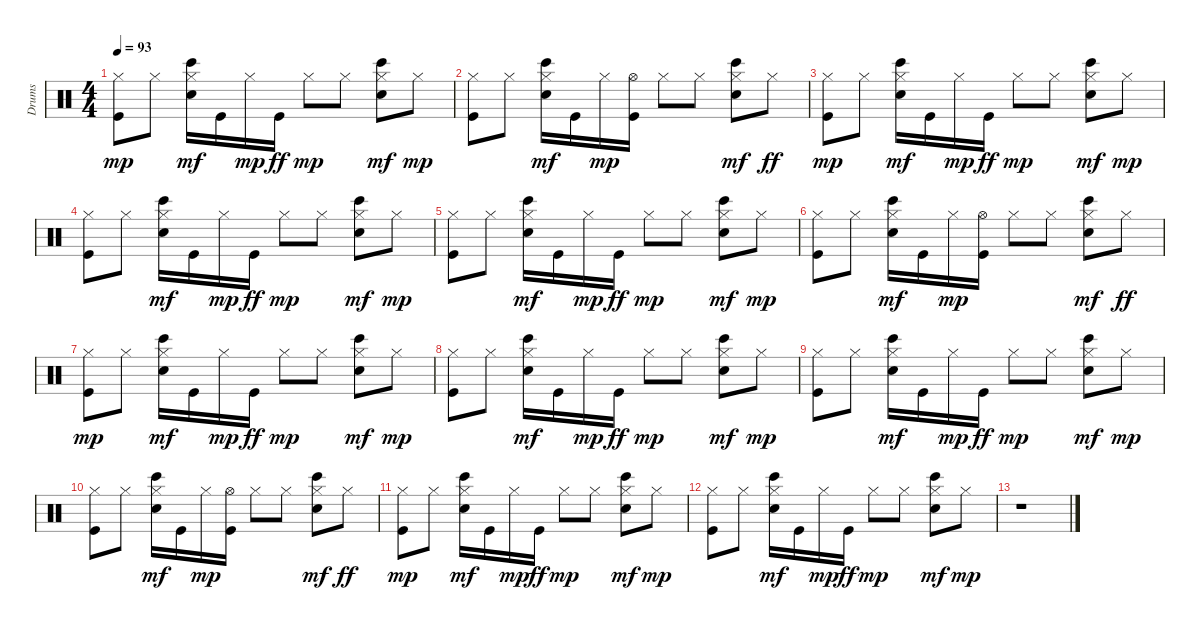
\track ("Drums" "Drums") {instrument percussion}
\staff {score}
\articulation defaults
\ts (4 4)
\tempo 93
\clef neutral
\ks c
("Kick (hit)" "Hi-Hat (closed)").8{dy mp} "Hi-Hat (closed)".8 ("Hi-Hat (closed)" "Electric Snare (hit)" "Bongo High (hit)").16{dy mf} "Kick (hit)".16 "Hi-Hat (closed)".16{dy mp} "Kick (hit)".16{dy ff} "Hi-Hat (closed)".8{dy mp} "Hi-Hat (closed)".8 ("Hi-Hat (closed)" "Electric Snare (hit)" "Bongo High (hit)").8{dy mf} "Hi-Hat (closed)".8{dy mp} |
("Kick (hit)" "Hi-Hat (closed)").8 "Hi-Hat (closed)".8 ("Hi-Hat (closed)" "Electric Snare (hit)" "Bongo High (hit)").16{dy mf} "Kick (hit)".16 "Hi-Hat (closed)".16{dy mp} ("Kick (hit)" "Hi-Hat (open)").16 "Hi-Hat (closed)".8 "Hi-Hat (closed)".8 ("Hi-Hat (closed)" "Electric Snare (hit)" "Bongo High (hit)").8{dy mf} "Hi-Hat (closed)".8{dy ff} |
("Kick (hit)" "Hi-Hat (closed)").8{dy mp} "Hi-Hat (closed)".8 ("Hi-Hat (closed)" "Electric Snare (hit)" "Bongo High (hit)").16{dy mf} "Kick (hit)".16 "Hi-Hat (closed)".16{dy mp} "Kick (hit)".16{dy ff} "Hi-Hat (closed)".8{dy mp} "Hi-Hat (closed)".8 ("Hi-Hat (closed)" "Electric Snare (hit)" "Bongo High (hit)").8{dy mf} "Hi-Hat (closed)".8{dy mp} |
("Kick (hit)" "Hi-Hat (closed)").8 "Hi-Hat (closed)".8 ("Hi-Hat (closed)" "Electric Snare (hit)" "Bongo High (hit)").16{dy mf} "Kick (hit)".16 "Hi-Hat (closed)".16{dy mp} "Kick (hit)".16{dy ff} "Hi-Hat (closed)".8{dy mp} "Hi-Hat (closed)".8 ("Hi-Hat (closed)" "Electric Snare (hit)" "Bongo High (hit)").8{dy mf} "Hi-Hat (closed)".8{dy mp} |
("Kick (hit)" "Hi-Hat (closed)").8 "Hi-Hat (closed)".8 ("Hi-Hat (closed)" "Electric Snare (hit)" "Bongo High (hit)").16{dy mf} "Kick (hit)".16 "Hi-Hat (closed)".16{dy mp} "Kick (hit)".16{dy ff} "Hi-Hat (closed)".8{dy mp} "Hi-Hat (closed)".8 ("Hi-Hat (closed)" "Electric Snare (hit)" "Bongo High (hit)").8{dy mf} "Hi-Hat (closed)".8{dy mp} |
("Kick (hit)" "Hi-Hat (closed)").8 "Hi-Hat (closed)".8 ("Hi-Hat (closed)" "Electric Snare (hit)" "Bongo High (hit)").16{dy mf} "Kick (hit)".16 "Hi-Hat (closed)".16{dy mp} ("Kick (hit)" "Hi-Hat (open)").16 "Hi-Hat (closed)".8 "Hi-Hat (closed)".8 ("Hi-Hat (closed)" "Electric Snare (hit)" "Bongo High (hit)").8{dy mf} "Hi-Hat (closed)".8{dy ff} |
("Kick (hit)" "Hi-Hat (closed)").8{dy mp} "Hi-Hat (closed)".8 ("Hi-Hat (closed)" "Electric Snare (hit)" "Bongo High (hit)").16{dy mf} "Kick (hit)".16 "Hi-Hat (closed)".16{dy mp} "Kick (hit)".16{dy ff} "Hi-Hat (closed)".8{dy mp} "Hi-Hat (closed)".8 ("Hi-Hat (closed)" "Electric Snare (hit)" "Bongo High (hit)").8{dy mf} "Hi-Hat (closed)".8{dy mp} |
("Kick (hit)" "Hi-Hat (closed)").8 "Hi-Hat (closed)".8 ("Hi-Hat (closed)" "Electric Snare (hit)" "Bongo High (hit)").16{dy mf} "Kick (hit)".16 "Hi-Hat (closed)".16{dy mp} "Kick (hit)".16{dy ff} "Hi-Hat (closed)".8{dy mp} "Hi-Hat (closed)".8 ("Hi-Hat (closed)" "Electric Snare (hit)" "Bongo High (hit)").8{dy mf} "Hi-Hat (closed)".8{dy mp} |
("Kick (hit)" "Hi-Hat (closed)").8 "Hi-Hat (closed)".8 ("Hi-Hat (closed)" "Electric Snare (hit)" "Bongo High (hit)").16{dy mf} "Kick (hit)".16 "Hi-Hat (closed)".16{dy mp} "Kick (hit)".16{dy ff} "Hi-Hat (closed)".8{dy mp} "Hi-Hat (closed)".8 ("Hi-Hat (closed)" "Electric Snare (hit)" "Bongo High (hit)").8{dy mf} "Hi-Hat (closed)".8{dy mp} |
("Kick (hit)" "Hi-Hat (closed)").8 "Hi-Hat (closed)".8 ("Hi-Hat (closed)" "Electric Snare (hit)" "Bongo High (hit)").16{dy mf} "Kick (hit)".16 "Hi-Hat (closed)".16{dy mp} ("Kick (hit)" "Hi-Hat (open)").16 "Hi-Hat (closed)".8 "Hi-Hat (closed)".8 ("Hi-Hat (closed)" "Electric Snare (hit)" "Bongo High (hit)").8{dy mf} "Hi-Hat (closed)".8{dy ff} |
("Kick (hit)" "Hi-Hat (closed)").8{dy mp} "Hi-Hat (closed)".8 ("Hi-Hat (closed)" "Electric Snare (hit)" "Bongo High (hit)").16{dy mf} "Kick (hit)".16 "Hi-Hat (closed)".16{dy mp} "Kick (hit)".16{dy ff} "Hi-Hat (closed)".8{dy mp} "Hi-Hat (closed)".8 ("Hi-Hat (closed)" "Electric Snare (hit)" "Bongo High (hit)").8{dy mf} "Hi-Hat (closed)".8{dy mp} |
("Kick (hit)" "Hi-Hat (closed)").8 "Hi-Hat (closed)".8 ("Hi-Hat (closed)" "Electric Snare (hit)" "Bongo High (hit)").16{dy mf} "Kick (hit)".16 "Hi-Hat (closed)".16{dy mp} "Kick (hit)".16{dy ff} "Hi-Hat (closed)".8{dy mp} "Hi-Hat (closed)".8 ("Hi-Hat (closed)" "Electric Snare (hit)" "Bongo High (hit)").8{dy mf} "Hi-Hat (closed)".8{dy mp} |
r.1
